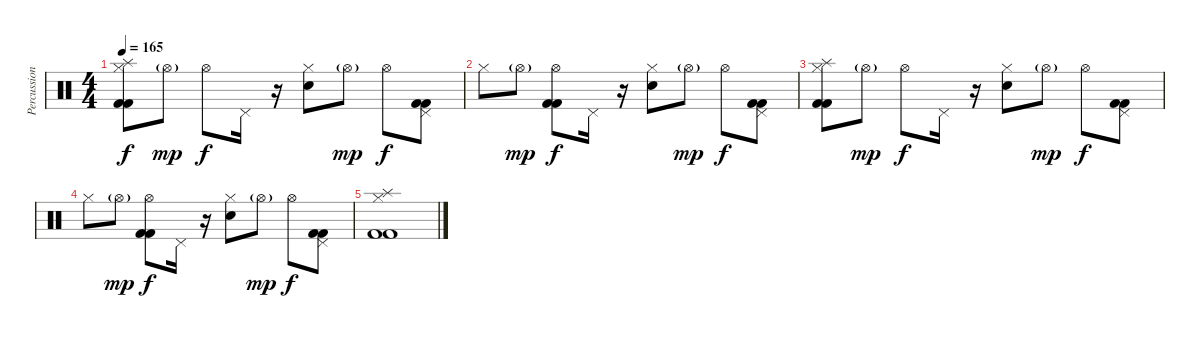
\track ("Percussion" "Percussion") {instrument percussion}
\staff {score}
\articulation defaults
\ts (4 4)
\tempo 165
\clef neutral
\ks c
("Splash (hit)" "Hi-Hat (closed)" "Kick (hit) 2" "Kick (hit) 2").8{dy f} "Hi-Hat (open)"{g}.8{dy mp} "Hi-Hat (open)".8{dy f} "Pedal Hi-Hat (hit)".16 r.16 ("Hi-Hat (closed)" "Electric Snare (hit)").8 "Hi-Hat (open)"{g}.8{dy mp} "Hi-Hat (open)".8{dy f} ("Pedal Hi-Hat (hit)" "Kick (hit) 2" "Kick (hit) 2").8 |
"Hi-Hat (closed)".8 "Hi-Hat (open)"{g}.8{dy mp} ("Hi-Hat (open)" "Kick (hit) 2" "Kick (hit) 2").8{dy f} "Pedal Hi-Hat (hit)".16 r.16 ("Hi-Hat (closed)" "Electric Snare (hit)").8 "Hi-Hat (open)"{g}.8{dy mp} "Hi-Hat (open)".8{dy f} ("Pedal Hi-Hat (hit)" "Kick (hit) 2" "Kick (hit) 2").8 |
("Splash (hit)" "Hi-Hat (closed)" "Kick (hit) 2" "Kick (hit) 2").8 "Hi-Hat (open)"{g}.8{dy mp} "Hi-Hat (open)".8{dy f} "Pedal Hi-Hat (hit)".16 r.16 ("Hi-Hat (closed)" "Electric Snare (hit)").8 "Hi-Hat (open)"{g}.8{dy mp} "Hi-Hat (open)".8{dy f} ("Pedal Hi-Hat (hit)" "Kick (hit) 2" "Kick (hit) 2").8 |
"Hi-Hat (closed)".8 "Hi-Hat (open)"{g}.8{dy mp} ("Hi-Hat (open)" "Kick (hit) 2" "Kick (hit) 2").8{dy f} "Pedal Hi-Hat (hit)".16 r.16 ("Hi-Hat (closed)" "Electric Snare (hit)").8 "Hi-Hat (open)"{g}.8{dy mp} "Hi-Hat (open)".8{dy f} ("Pedal Hi-Hat (hit)" "Kick (hit) 2" "Kick (hit) 2").8 |
("Splash (hit)" "Hi-Hat (closed)" "Kick (hit) 2" "Kick (hit) 2").1
